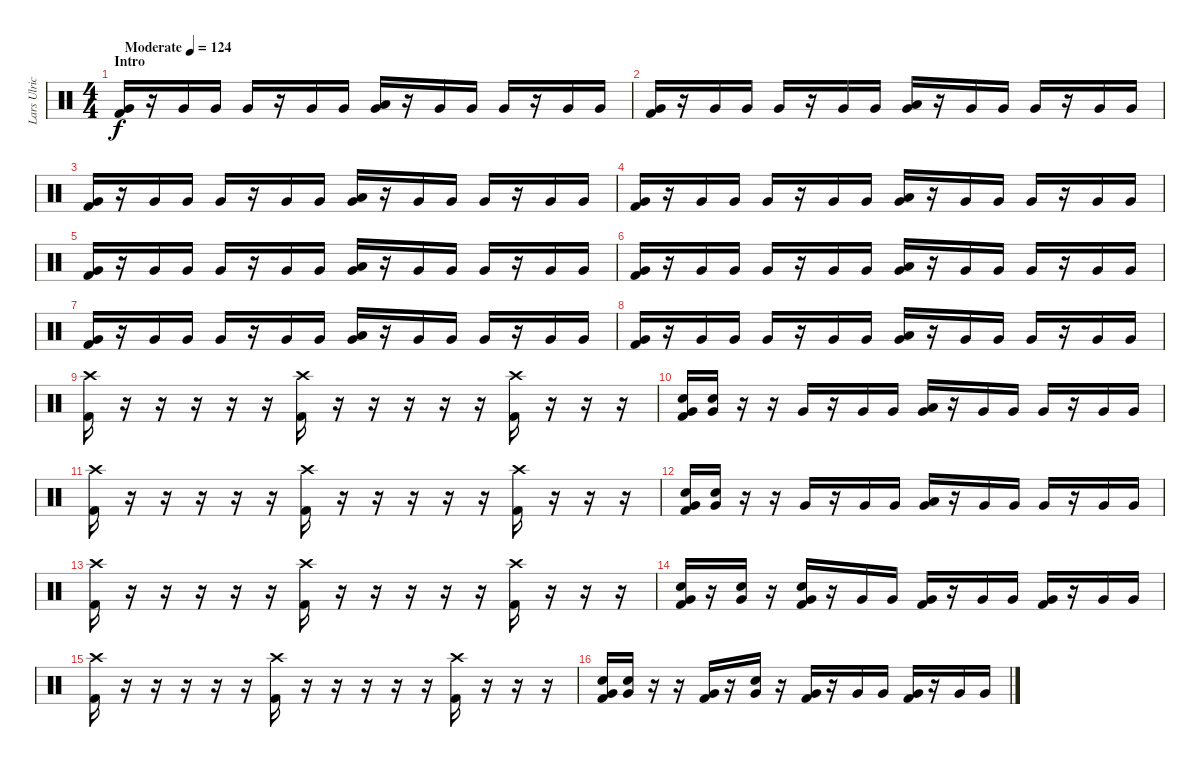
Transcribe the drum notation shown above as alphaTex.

\track ("Lars Ulrich" "Lars Ulric") {instrument percussion}
\staff {score}
\articulation defaults
\ts (4 4)
\section ("" "Intro")
\tempo (124 "Moderate")
\clef neutral
\ks c
("Very Low Tom (hit)" "Kick (hit) 2").16{dy f} r.16 "Very Low Tom (hit)".16 "Very Low Tom (hit)".16 "Very Low Tom (hit)".16 r.16 "Very Low Tom (hit)".16 "Very Low Tom (hit)".16 ("Low Tom (hit)" "Very Low Tom (hit)").16 r.16 "Very Low Tom (hit)".16 "Very Low Tom (hit)".16 "Very Low Tom (hit)".16 r.16 "Very Low Tom (hit)".16 "Very Low Tom (hit)".16 |
("Very Low Tom (hit)" "Kick (hit) 2").16 r.16 "Very Low Tom (hit)".16 "Very Low Tom (hit)".16 "Very Low Tom (hit)".16 r.16 "Very Low Tom (hit)".16 "Very Low Tom (hit)".16 ("Low Tom (hit)" "Very Low Tom (hit)").16 r.16 "Very Low Tom (hit)".16 "Very Low Tom (hit)".16 "Very Low Tom (hit)".16 r.16 "Very Low Tom (hit)".16 "Very Low Tom (hit)".16 |
("Very Low Tom (hit)" "Kick (hit) 2").16 r.16 "Very Low Tom (hit)".16 "Very Low Tom (hit)".16 "Very Low Tom (hit)".16 r.16 "Very Low Tom (hit)".16 "Very Low Tom (hit)".16 ("Low Tom (hit)" "Very Low Tom (hit)").16 r.16 "Very Low Tom (hit)".16 "Very Low Tom (hit)".16 "Very Low Tom (hit)".16 r.16 "Very Low Tom (hit)".16 "Very Low Tom (hit)".16 |
("Very Low Tom (hit)" "Kick (hit) 2").16 r.16 "Very Low Tom (hit)".16 "Very Low Tom (hit)".16 "Very Low Tom (hit)".16 r.16 "Very Low Tom (hit)".16 "Very Low Tom (hit)".16 ("Low Tom (hit)" "Very Low Tom (hit)").16 r.16 "Very Low Tom (hit)".16 "Very Low Tom (hit)".16 "Very Low Tom (hit)".16 r.16 "Very Low Tom (hit)".16 "Very Low Tom (hit)".16 |
("Very Low Tom (hit)" "Kick (hit) 2").16 r.16 "Very Low Tom (hit)".16 "Very Low Tom (hit)".16 "Very Low Tom (hit)".16 r.16 "Very Low Tom (hit)".16 "Very Low Tom (hit)".16 ("Low Tom (hit)" "Very Low Tom (hit)").16 r.16 "Very Low Tom (hit)".16 "Very Low Tom (hit)".16 "Very Low Tom (hit)".16 r.16 "Very Low Tom (hit)".16 "Very Low Tom (hit)".16 |
("Very Low Tom (hit)" "Kick (hit) 2").16 r.16 "Very Low Tom (hit)".16 "Very Low Tom (hit)".16 "Very Low Tom (hit)".16 r.16 "Very Low Tom (hit)".16 "Very Low Tom (hit)".16 ("Low Tom (hit)" "Very Low Tom (hit)").16 r.16 "Very Low Tom (hit)".16 "Very Low Tom (hit)".16 "Very Low Tom (hit)".16 r.16 "Very Low Tom (hit)".16 "Very Low Tom (hit)".16 |
("Very Low Tom (hit)" "Kick (hit) 2").16 r.16 "Very Low Tom (hit)".16 "Very Low Tom (hit)".16 "Very Low Tom (hit)".16 r.16 "Very Low Tom (hit)".16 "Very Low Tom (hit)".16 ("Low Tom (hit)" "Very Low Tom (hit)").16 r.16 "Very Low Tom (hit)".16 "Very Low Tom (hit)".16 "Very Low Tom (hit)".16 r.16 "Very Low Tom (hit)".16 "Very Low Tom (hit)".16 |
("Very Low Tom (hit)" "Kick (hit) 2").16 r.16 "Very Low Tom (hit)".16 "Very Low Tom (hit)".16 "Very Low Tom (hit)".16 r.16 "Very Low Tom (hit)".16 "Very Low Tom (hit)".16 ("Low Tom (hit)" "Very Low Tom (hit)").16 r.16 "Very Low Tom (hit)".16 "Very Low Tom (hit)".16 "Very Low Tom (hit)".16 r.16 "Very Low Tom (hit)".16 "Very Low Tom (hit)".16 |
("Crash high (hit)" "Kick (hit) 2").16 r.16 r.16 r.16 r.16 r.16 ("Crash high (hit)" "Kick (hit) 2").16 r.16 r.16 r.16 r.16 r.16 ("Crash high (hit)" "Kick (hit) 2").16 r.16 r.16 r.16 |
("Electric Snare (hit)" "Very Low Tom (hit)" "Kick (hit) 2").16 ("Electric Snare (hit)" "Very Low Tom (hit)").16 r.16 r.16 "Very Low Tom (hit)".16 r.16 "Very Low Tom (hit)".16 "Very Low Tom (hit)".16 ("Low Tom (hit)" "Very Low Tom (hit)").16 r.16 "Very Low Tom (hit)".16 "Very Low Tom (hit)".16 "Very Low Tom (hit)".16 r.16 "Very Low Tom (hit)".16 "Very Low Tom (hit)".16 |
("Crash high (hit)" "Kick (hit) 2").16 r.16 r.16 r.16 r.16 r.16 ("Crash high (hit)" "Kick (hit) 2").16 r.16 r.16 r.16 r.16 r.16 ("Crash high (hit)" "Kick (hit) 2").16 r.16 r.16 r.16 |
("Electric Snare (hit)" "Very Low Tom (hit)" "Kick (hit) 2").16 ("Electric Snare (hit)" "Very Low Tom (hit)").16 r.16 r.16 "Very Low Tom (hit)".16 r.16 "Very Low Tom (hit)".16 "Very Low Tom (hit)".16 ("Low Tom (hit)" "Very Low Tom (hit)").16 r.16 "Very Low Tom (hit)".16 "Very Low Tom (hit)".16 "Very Low Tom (hit)".16 r.16 "Very Low Tom (hit)".16 "Very Low Tom (hit)".16 |
("Crash high (hit)" "Kick (hit) 2").16 r.16 r.16 r.16 r.16 r.16 ("Crash high (hit)" "Kick (hit) 2").16 r.16 r.16 r.16 r.16 r.16 ("Crash high (hit)" "Kick (hit) 2").16 r.16 r.16 r.16 |
("Electric Snare (hit)" "Very Low Tom (hit)" "Kick (hit) 2").16 r.16 ("Electric Snare (hit)" "Very Low Tom (hit)").16 r.16 ("Electric Snare (hit)" "Very Low Tom (hit)" "Kick (hit) 2").16 r.16 "Very Low Tom (hit)".16 "Very Low Tom (hit)".16 ("Very Low Tom (hit)" "Kick (hit) 2").16 r.16 "Very Low Tom (hit)".16 "Very Low Tom (hit)".16 ("Very Low Tom (hit)" "Kick (hit) 2").16 r.16 "Very Low Tom (hit)".16 "Very Low Tom (hit)".16 |
("Crash high (hit)" "Kick (hit) 2").16 r.16 r.16 r.16 r.16 r.16 ("Crash high (hit)" "Kick (hit) 2").16 r.16 r.16 r.16 r.16 r.16 ("Crash high (hit)" "Kick (hit) 2").16 r.16 r.16 r.16 |
("Electric Snare (hit)" "Very Low Tom (hit)" "Kick (hit) 2").16 ("Electric Snare (hit)" "Very Low Tom (hit)").16 r.16 r.16 ("Very Low Tom (hit)" "Kick (hit) 2").16 r.16 ("Electric Snare (hit)" "Very Low Tom (hit)").16 r.16 ("Very Low Tom (hit)" "Kick (hit) 2").16 r.16 "Very Low Tom (hit)".16 "Very Low Tom (hit)".16 ("Very Low Tom (hit)" "Kick (hit) 2").16 r.16 "Very Low Tom (hit)".16 "Very Low Tom (hit)".16
